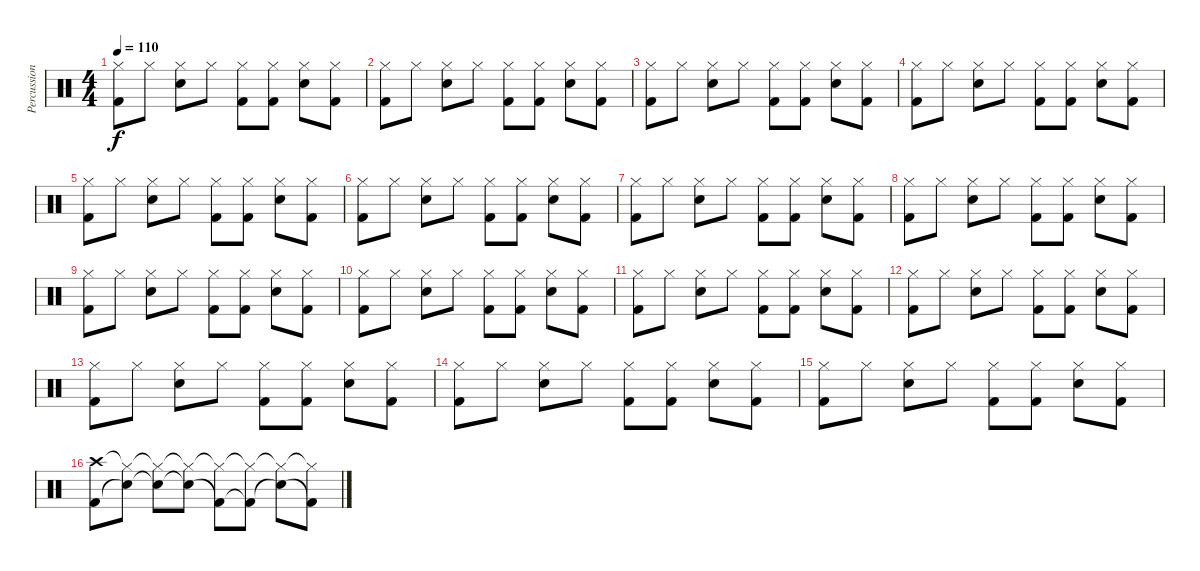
\track ("Percussions" "Percussion") {instrument percussion}
\staff {score}
\articulation defaults
\ts (4 4)
\tempo 110
\clef neutral
\ks c
("Hi-Hat (closed)" "Kick (hit) 2").8{dy f} "Hi-Hat (closed)".8 ("Hi-Hat (closed)" "Electric Snare (hit)").8 "Hi-Hat (closed)".8 ("Hi-Hat (closed)" "Kick (hit) 2").8 ("Hi-Hat (closed)" "Kick (hit) 2").8 ("Hi-Hat (closed)" "Electric Snare (hit)").8 ("Hi-Hat (closed)" "Kick (hit) 2").8 |
("Hi-Hat (closed)" "Kick (hit) 2").8 "Hi-Hat (closed)".8 ("Hi-Hat (closed)" "Electric Snare (hit)").8 "Hi-Hat (closed)".8 ("Hi-Hat (closed)" "Kick (hit) 2").8 ("Hi-Hat (closed)" "Kick (hit) 2").8 ("Hi-Hat (closed)" "Electric Snare (hit)").8 ("Hi-Hat (closed)" "Kick (hit) 2").8 |
("Hi-Hat (closed)" "Kick (hit) 2").8 "Hi-Hat (closed)".8 ("Hi-Hat (closed)" "Electric Snare (hit)").8 "Hi-Hat (closed)".8 ("Hi-Hat (closed)" "Kick (hit) 2").8 ("Hi-Hat (closed)" "Kick (hit) 2").8 ("Hi-Hat (closed)" "Electric Snare (hit)").8 ("Hi-Hat (closed)" "Kick (hit) 2").8 |
("Hi-Hat (closed)" "Kick (hit) 2").8 "Hi-Hat (closed)".8 ("Hi-Hat (closed)" "Electric Snare (hit)").8 "Hi-Hat (closed)".8 ("Hi-Hat (closed)" "Kick (hit) 2").8 ("Hi-Hat (closed)" "Kick (hit) 2").8 ("Hi-Hat (closed)" "Electric Snare (hit)").8 ("Hi-Hat (closed)" "Kick (hit) 2").8 |
("Hi-Hat (closed)" "Kick (hit) 2").8 "Hi-Hat (closed)".8 ("Hi-Hat (closed)" "Electric Snare (hit)").8 "Hi-Hat (closed)".8 ("Hi-Hat (closed)" "Kick (hit) 2").8 ("Hi-Hat (closed)" "Kick (hit) 2").8 ("Hi-Hat (closed)" "Electric Snare (hit)").8 ("Hi-Hat (closed)" "Kick (hit) 2").8 |
("Hi-Hat (closed)" "Kick (hit) 2").8 "Hi-Hat (closed)".8 ("Hi-Hat (closed)" "Electric Snare (hit)").8 "Hi-Hat (closed)".8 ("Hi-Hat (closed)" "Kick (hit) 2").8 ("Hi-Hat (closed)" "Kick (hit) 2").8 ("Hi-Hat (closed)" "Electric Snare (hit)").8 ("Hi-Hat (closed)" "Kick (hit) 2").8 |
("Hi-Hat (closed)" "Kick (hit) 2").8 "Hi-Hat (closed)".8 ("Hi-Hat (closed)" "Electric Snare (hit)").8 "Hi-Hat (closed)".8 ("Hi-Hat (closed)" "Kick (hit) 2").8 ("Hi-Hat (closed)" "Kick (hit) 2").8 ("Hi-Hat (closed)" "Electric Snare (hit)").8 ("Hi-Hat (closed)" "Kick (hit) 2").8 |
("Hi-Hat (closed)" "Kick (hit) 2").8 "Hi-Hat (closed)".8 ("Hi-Hat (closed)" "Electric Snare (hit)").8 "Hi-Hat (closed)".8 ("Hi-Hat (closed)" "Kick (hit) 2").8 ("Hi-Hat (closed)" "Kick (hit) 2").8 ("Hi-Hat (closed)" "Electric Snare (hit)").8 ("Hi-Hat (closed)" "Kick (hit) 2").8 |
("Hi-Hat (closed)" "Kick (hit) 2").8 "Hi-Hat (closed)".8 ("Hi-Hat (closed)" "Electric Snare (hit)").8 "Hi-Hat (closed)".8 ("Hi-Hat (closed)" "Kick (hit) 2").8 ("Hi-Hat (closed)" "Kick (hit) 2").8 ("Hi-Hat (closed)" "Electric Snare (hit)").8 ("Hi-Hat (closed)" "Kick (hit) 2").8 |
("Hi-Hat (closed)" "Kick (hit) 2").8 "Hi-Hat (closed)".8 ("Hi-Hat (closed)" "Electric Snare (hit)").8 "Hi-Hat (closed)".8 ("Hi-Hat (closed)" "Kick (hit) 2").8 ("Hi-Hat (closed)" "Kick (hit) 2").8 ("Hi-Hat (closed)" "Electric Snare (hit)").8 ("Hi-Hat (closed)" "Kick (hit) 2").8 |
("Hi-Hat (closed)" "Kick (hit) 2").8 "Hi-Hat (closed)".8 ("Hi-Hat (closed)" "Electric Snare (hit)").8 "Hi-Hat (closed)".8 ("Hi-Hat (closed)" "Kick (hit) 2").8 ("Hi-Hat (closed)" "Kick (hit) 2").8 ("Hi-Hat (closed)" "Electric Snare (hit)").8 ("Hi-Hat (closed)" "Kick (hit) 2").8 |
("Hi-Hat (closed)" "Kick (hit) 2").8 "Hi-Hat (closed)".8 ("Hi-Hat (closed)" "Electric Snare (hit)").8 "Hi-Hat (closed)".8 ("Hi-Hat (closed)" "Kick (hit) 2").8 ("Hi-Hat (closed)" "Kick (hit) 2").8 ("Hi-Hat (closed)" "Electric Snare (hit)").8 ("Hi-Hat (closed)" "Kick (hit) 2").8 |
("Hi-Hat (closed)" "Kick (hit) 2").8 "Hi-Hat (closed)".8 ("Hi-Hat (closed)" "Electric Snare (hit)").8 "Hi-Hat (closed)".8 ("Hi-Hat (closed)" "Kick (hit) 2").8 ("Hi-Hat (closed)" "Kick (hit) 2").8 ("Hi-Hat (closed)" "Electric Snare (hit)").8 ("Hi-Hat (closed)" "Kick (hit) 2").8 |
("Hi-Hat (closed)" "Kick (hit) 2").8 "Hi-Hat (closed)".8 ("Hi-Hat (closed)" "Electric Snare (hit)").8 "Hi-Hat (closed)".8 ("Hi-Hat (closed)" "Kick (hit) 2").8 ("Hi-Hat (closed)" "Kick (hit) 2").8 ("Hi-Hat (closed)" "Electric Snare (hit)").8 ("Hi-Hat (closed)" "Kick (hit) 2").8 |
("Hi-Hat (closed)" "Kick (hit) 2").8 "Hi-Hat (closed)".8 ("Hi-Hat (closed)" "Electric Snare (hit)").8 "Hi-Hat (closed)".8 ("Hi-Hat (closed)" "Kick (hit) 2").8 ("Hi-Hat (closed)" "Kick (hit) 2").8 ("Hi-Hat (closed)" "Electric Snare (hit)").8 ("Hi-Hat (closed)" "Kick (hit) 2").8 |
("Crash high (hit)" "Kick (hit) 2").8 ("Hi-Hat (closed)"{t} "Snare (hit)"{t}).8 ("Hi-Hat (closed)"{t} "Snare (hit)"{t}).8 ("Hi-Hat (closed)"{t} "Snare (hit)"{t}).8 ("Hi-Hat (closed)"{t} "Kick (hit) 2"{t}).8 ("Hi-Hat (closed)"{t} "Kick (hit) 2"{t}).8 ("Hi-Hat (closed)"{t} "Snare (hit)"{t}).8 ("Hi-Hat (closed)"{t} "Kick (hit) 2"{t}).8
